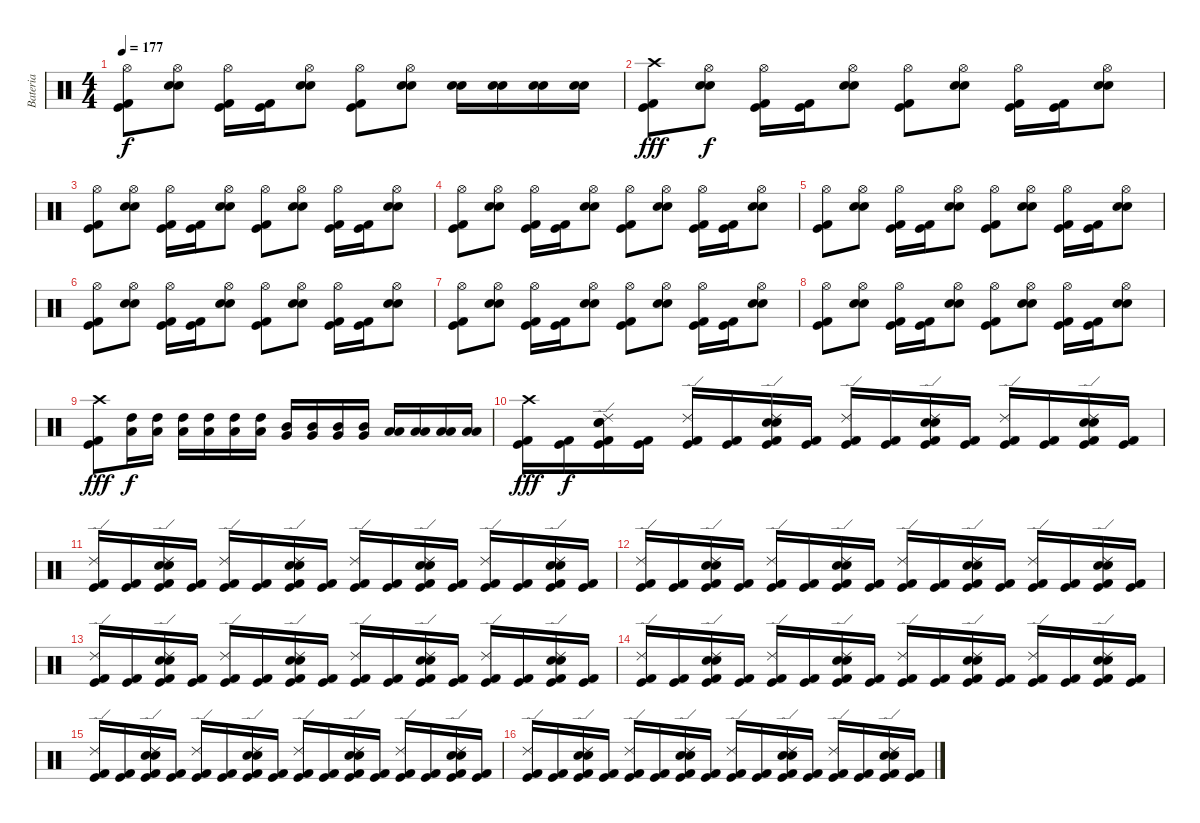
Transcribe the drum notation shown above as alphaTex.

\track ("Bateria" "Bateria") {instrument percussion}
\staff {score}
\articulation defaults
\ts (4 4)
\tempo 177
\clef neutral
\ks c
("Hi-Hat (open)" "Kick (hit) 2" "Kick (hit)").8{dy f} ("Hi-Hat (open)" "Electric Snare (hit)" "Snare (hit) 2").8 ("Hi-Hat (open)" "Kick (hit) 2" "Kick (hit)").16 ("Kick (hit) 2" "Kick (hit)").16 ("Hi-Hat (open)" "Electric Snare (hit)" "Snare (hit) 2").8 ("Hi-Hat (open)" "Kick (hit) 2" "Kick (hit)").8 ("Hi-Hat (open)" "Electric Snare (hit)" "Snare (hit) 2").8 ("Electric Snare (hit)" "Snare (hit) 2").16 ("Electric Snare (hit)" "Snare (hit) 2").16 ("Electric Snare (hit)" "Snare (hit) 2").16 ("Electric Snare (hit)" "Snare (hit) 2").16 |
("Crash high (hit)" "Kick (hit) 2" "Kick (hit)").8{dy fff} ("Hi-Hat (open)" "Electric Snare (hit)" "Snare (hit) 2").8{dy f} ("Hi-Hat (open)" "Kick (hit) 2" "Kick (hit)").16 ("Kick (hit) 2" "Kick (hit)").16 ("Hi-Hat (open)" "Electric Snare (hit)" "Snare (hit) 2").8 ("Hi-Hat (open)" "Kick (hit) 2" "Kick (hit)").8 ("Hi-Hat (open)" "Electric Snare (hit)" "Snare (hit) 2").8 ("Hi-Hat (open)" "Kick (hit) 2" "Kick (hit)").16 ("Kick (hit) 2" "Kick (hit)").16 ("Hi-Hat (open)" "Electric Snare (hit)" "Snare (hit) 2").8 |
("Hi-Hat (open)" "Kick (hit) 2" "Kick (hit)").8 ("Hi-Hat (open)" "Electric Snare (hit)" "Snare (hit) 2").8 ("Hi-Hat (open)" "Kick (hit) 2" "Kick (hit)").16 ("Kick (hit) 2" "Kick (hit)").16 ("Hi-Hat (open)" "Electric Snare (hit)" "Snare (hit) 2").8 ("Hi-Hat (open)" "Kick (hit) 2" "Kick (hit)").8 ("Hi-Hat (open)" "Electric Snare (hit)" "Snare (hit) 2").8 ("Hi-Hat (open)" "Kick (hit) 2" "Kick (hit)").16 ("Kick (hit) 2" "Kick (hit)").16 ("Hi-Hat (open)" "Electric Snare (hit)" "Snare (hit) 2").8 |
("Hi-Hat (open)" "Kick (hit) 2" "Kick (hit)").8 ("Hi-Hat (open)" "Electric Snare (hit)" "Snare (hit) 2").8 ("Hi-Hat (open)" "Kick (hit) 2" "Kick (hit)").16 ("Kick (hit) 2" "Kick (hit)").16 ("Hi-Hat (open)" "Electric Snare (hit)" "Snare (hit) 2").8 ("Hi-Hat (open)" "Kick (hit) 2" "Kick (hit)").8 ("Hi-Hat (open)" "Electric Snare (hit)" "Snare (hit) 2").8 ("Hi-Hat (open)" "Kick (hit) 2" "Kick (hit)").16 ("Kick (hit) 2" "Kick (hit)").16 ("Hi-Hat (open)" "Electric Snare (hit)" "Snare (hit) 2").8 |
("Hi-Hat (open)" "Kick (hit) 2" "Kick (hit)").8 ("Hi-Hat (open)" "Electric Snare (hit)" "Snare (hit) 2").8 ("Hi-Hat (open)" "Kick (hit) 2" "Kick (hit)").16 ("Kick (hit) 2" "Kick (hit)").16 ("Hi-Hat (open)" "Electric Snare (hit)" "Snare (hit) 2").8 ("Hi-Hat (open)" "Kick (hit) 2" "Kick (hit)").8 ("Hi-Hat (open)" "Electric Snare (hit)" "Snare (hit) 2").8 ("Hi-Hat (open)" "Kick (hit) 2" "Kick (hit)").16 ("Kick (hit) 2" "Kick (hit)").16 ("Hi-Hat (open)" "Electric Snare (hit)" "Snare (hit) 2").8 |
("Hi-Hat (open)" "Kick (hit) 2" "Kick (hit)").8 ("Hi-Hat (open)" "Electric Snare (hit)" "Snare (hit) 2").8 ("Hi-Hat (open)" "Kick (hit) 2" "Kick (hit)").16 ("Kick (hit) 2" "Kick (hit)").16 ("Hi-Hat (open)" "Electric Snare (hit)" "Snare (hit) 2").8 ("Hi-Hat (open)" "Kick (hit) 2" "Kick (hit)").8 ("Hi-Hat (open)" "Electric Snare (hit)" "Snare (hit) 2").8 ("Hi-Hat (open)" "Kick (hit) 2" "Kick (hit)").16 ("Kick (hit) 2" "Kick (hit)").16 ("Hi-Hat (open)" "Electric Snare (hit)" "Snare (hit) 2").8 |
("Hi-Hat (open)" "Kick (hit) 2" "Kick (hit)").8 ("Hi-Hat (open)" "Electric Snare (hit)" "Snare (hit) 2").8 ("Hi-Hat (open)" "Kick (hit) 2" "Kick (hit)").16 ("Kick (hit) 2" "Kick (hit)").16 ("Hi-Hat (open)" "Electric Snare (hit)" "Snare (hit) 2").8 ("Hi-Hat (open)" "Kick (hit) 2" "Kick (hit)").8 ("Hi-Hat (open)" "Electric Snare (hit)" "Snare (hit) 2").8 ("Hi-Hat (open)" "Kick (hit) 2" "Kick (hit)").16 ("Kick (hit) 2" "Kick (hit)").16 ("Hi-Hat (open)" "Electric Snare (hit)" "Snare (hit) 2").8 |
("Hi-Hat (open)" "Kick (hit) 2" "Kick (hit)").8 ("Hi-Hat (open)" "Electric Snare (hit)" "Snare (hit) 2").8 ("Hi-Hat (open)" "Kick (hit) 2" "Kick (hit)").16 ("Kick (hit) 2" "Kick (hit)").16 ("Hi-Hat (open)" "Electric Snare (hit)" "Snare (hit) 2").8 ("Hi-Hat (open)" "Kick (hit) 2" "Kick (hit)").8 ("Hi-Hat (open)" "Electric Snare (hit)" "Snare (hit) 2").8 ("Hi-Hat (open)" "Kick (hit) 2" "Kick (hit)").16 ("Kick (hit) 2" "Kick (hit)").16 ("Hi-Hat (open)" "Electric Snare (hit)" "Snare (hit) 2").8 |
("Crash high (hit)" "Kick (hit) 2" "Kick (hit)").8{dy fff} ("High Tom (hit)" "Low Tom (hit)").16{dy f} ("High Tom (hit)" "Low Tom (hit)").16 ("High Tom (hit)" "Low Tom (hit)").16 ("High Tom (hit)" "Low Tom (hit)").16 ("High Tom (hit)" "Low Tom (hit)").16 ("High Tom (hit)" "Low Tom (hit)").16 ("Mid Tom (hit)" "Very Low Tom (hit)").16 ("Mid Tom (hit)" "Very Low Tom (hit)").16 ("Mid Tom (hit)" "Very Low Tom (hit)").16 ("Mid Tom (hit)" "Very Low Tom (hit)").16 ("Low Tom (hit)" "Low Floor Tom (hit)").16 ("Low Tom (hit)" "Low Floor Tom (hit)").16 ("Low Tom (hit)" "Low Floor Tom (hit)").16 ("Low Tom (hit)" "Low Floor Tom (hit)").16 |
("Crash high (hit)" "Kick (hit) 2" "Kick (hit)").16{dy fff} ("Kick (hit) 2" "Kick (hit)").16{dy f} ("Ride (edge) 2" "Electric Snare (hit)" "Snare (hit) 2" "Kick (hit) 2" "Kick (hit)").16 ("Kick (hit) 2" "Kick (hit)").16 ("Ride (edge) 2" "Kick (hit) 2" "Kick (hit)").16 ("Kick (hit) 2" "Kick (hit)").16 ("Ride (edge) 2" "Electric Snare (hit)" "Snare (hit) 2" "Kick (hit) 2" "Kick (hit)").16 ("Kick (hit) 2" "Kick (hit)").16 ("Ride (edge) 2" "Kick (hit) 2" "Kick (hit)").16 ("Kick (hit) 2" "Kick (hit)").16 ("Ride (edge) 2" "Electric Snare (hit)" "Snare (hit) 2" "Kick (hit) 2" "Kick (hit)").16 ("Kick (hit) 2" "Kick (hit)").16 ("Ride (edge) 2" "Kick (hit) 2" "Kick (hit)").16 ("Kick (hit) 2" "Kick (hit)").16 ("Ride (edge) 2" "Electric Snare (hit)" "Snare (hit) 2" "Kick (hit) 2" "Kick (hit)").16 ("Kick (hit) 2" "Kick (hit)").16 |
("Ride (edge) 2" "Kick (hit) 2" "Kick (hit)").16 ("Kick (hit) 2" "Kick (hit)").16 ("Ride (edge) 2" "Electric Snare (hit)" "Snare (hit) 2" "Kick (hit) 2" "Kick (hit)").16 ("Kick (hit) 2" "Kick (hit)").16 ("Ride (edge) 2" "Kick (hit) 2" "Kick (hit)").16 ("Kick (hit) 2" "Kick (hit)").16 ("Ride (edge) 2" "Electric Snare (hit)" "Snare (hit) 2" "Kick (hit) 2" "Kick (hit)").16 ("Kick (hit) 2" "Kick (hit)").16 ("Ride (edge) 2" "Kick (hit) 2" "Kick (hit)").16 ("Kick (hit) 2" "Kick (hit)").16 ("Ride (edge) 2" "Electric Snare (hit)" "Snare (hit) 2" "Kick (hit) 2" "Kick (hit)").16 ("Kick (hit) 2" "Kick (hit)").16 ("Ride (edge) 2" "Kick (hit) 2" "Kick (hit)").16 ("Kick (hit) 2" "Kick (hit)").16 ("Ride (edge) 2" "Electric Snare (hit)" "Snare (hit) 2" "Kick (hit) 2" "Kick (hit)").16 ("Kick (hit) 2" "Kick (hit)").16 |
("Ride (edge) 2" "Kick (hit) 2" "Kick (hit)").16 ("Kick (hit) 2" "Kick (hit)").16 ("Ride (edge) 2" "Electric Snare (hit)" "Snare (hit) 2" "Kick (hit) 2" "Kick (hit)").16 ("Kick (hit) 2" "Kick (hit)").16 ("Ride (edge) 2" "Kick (hit) 2" "Kick (hit)").16 ("Kick (hit) 2" "Kick (hit)").16 ("Ride (edge) 2" "Electric Snare (hit)" "Snare (hit) 2" "Kick (hit) 2" "Kick (hit)").16 ("Kick (hit) 2" "Kick (hit)").16 ("Ride (edge) 2" "Kick (hit) 2" "Kick (hit)").16 ("Kick (hit) 2" "Kick (hit)").16 ("Ride (edge) 2" "Electric Snare (hit)" "Snare (hit) 2" "Kick (hit) 2" "Kick (hit)").16 ("Kick (hit) 2" "Kick (hit)").16 ("Ride (edge) 2" "Kick (hit) 2" "Kick (hit)").16 ("Kick (hit) 2" "Kick (hit)").16 ("Ride (edge) 2" "Electric Snare (hit)" "Snare (hit) 2" "Kick (hit) 2" "Kick (hit)").16 ("Kick (hit) 2" "Kick (hit)").16 |
("Ride (edge) 2" "Kick (hit) 2" "Kick (hit)").16 ("Kick (hit) 2" "Kick (hit)").16 ("Ride (edge) 2" "Electric Snare (hit)" "Snare (hit) 2" "Kick (hit) 2" "Kick (hit)").16 ("Kick (hit) 2" "Kick (hit)").16 ("Ride (edge) 2" "Kick (hit) 2" "Kick (hit)").16 ("Kick (hit) 2" "Kick (hit)").16 ("Ride (edge) 2" "Electric Snare (hit)" "Snare (hit) 2" "Kick (hit) 2" "Kick (hit)").16 ("Kick (hit) 2" "Kick (hit)").16 ("Ride (edge) 2" "Kick (hit) 2" "Kick (hit)").16 ("Kick (hit) 2" "Kick (hit)").16 ("Ride (edge) 2" "Electric Snare (hit)" "Snare (hit) 2" "Kick (hit) 2" "Kick (hit)").16 ("Kick (hit) 2" "Kick (hit)").16 ("Ride (edge) 2" "Kick (hit) 2" "Kick (hit)").16 ("Kick (hit) 2" "Kick (hit)").16 ("Ride (edge) 2" "Electric Snare (hit)" "Snare (hit) 2" "Kick (hit) 2" "Kick (hit)").16 ("Kick (hit) 2" "Kick (hit)").16 |
("Ride (edge) 2" "Kick (hit) 2" "Kick (hit)").16 ("Kick (hit) 2" "Kick (hit)").16 ("Ride (edge) 2" "Electric Snare (hit)" "Snare (hit) 2" "Kick (hit) 2" "Kick (hit)").16 ("Kick (hit) 2" "Kick (hit)").16 ("Ride (edge) 2" "Kick (hit) 2" "Kick (hit)").16 ("Kick (hit) 2" "Kick (hit)").16 ("Ride (edge) 2" "Electric Snare (hit)" "Snare (hit) 2" "Kick (hit) 2" "Kick (hit)").16 ("Kick (hit) 2" "Kick (hit)").16 ("Ride (edge) 2" "Kick (hit) 2" "Kick (hit)").16 ("Kick (hit) 2" "Kick (hit)").16 ("Ride (edge) 2" "Electric Snare (hit)" "Snare (hit) 2" "Kick (hit) 2" "Kick (hit)").16 ("Kick (hit) 2" "Kick (hit)").16 ("Ride (edge) 2" "Kick (hit) 2" "Kick (hit)").16 ("Kick (hit) 2" "Kick (hit)").16 ("Ride (edge) 2" "Electric Snare (hit)" "Snare (hit) 2" "Kick (hit) 2" "Kick (hit)").16 ("Kick (hit) 2" "Kick (hit)").16 |
("Ride (edge) 2" "Kick (hit) 2" "Kick (hit)").16 ("Kick (hit) 2" "Kick (hit)").16 ("Ride (edge) 2" "Electric Snare (hit)" "Snare (hit) 2" "Kick (hit) 2" "Kick (hit)").16 ("Kick (hit) 2" "Kick (hit)").16 ("Ride (edge) 2" "Kick (hit) 2" "Kick (hit)").16 ("Kick (hit) 2" "Kick (hit)").16 ("Ride (edge) 2" "Electric Snare (hit)" "Snare (hit) 2" "Kick (hit) 2" "Kick (hit)").16 ("Kick (hit) 2" "Kick (hit)").16 ("Ride (edge) 2" "Kick (hit) 2" "Kick (hit)").16 ("Kick (hit) 2" "Kick (hit)").16 ("Ride (edge) 2" "Electric Snare (hit)" "Snare (hit) 2" "Kick (hit) 2" "Kick (hit)").16 ("Kick (hit) 2" "Kick (hit)").16 ("Ride (edge) 2" "Kick (hit) 2" "Kick (hit)").16 ("Kick (hit) 2" "Kick (hit)").16 ("Ride (edge) 2" "Electric Snare (hit)" "Snare (hit) 2" "Kick (hit) 2" "Kick (hit)").16 ("Kick (hit) 2" "Kick (hit)").16 |
("Ride (edge) 2" "Kick (hit) 2" "Kick (hit)").16 ("Kick (hit) 2" "Kick (hit)").16 ("Ride (edge) 2" "Electric Snare (hit)" "Snare (hit) 2" "Kick (hit) 2" "Kick (hit)").16 ("Kick (hit) 2" "Kick (hit)").16 ("Ride (edge) 2" "Kick (hit) 2" "Kick (hit)").16 ("Kick (hit) 2" "Kick (hit)").16 ("Ride (edge) 2" "Electric Snare (hit)" "Snare (hit) 2" "Kick (hit) 2" "Kick (hit)").16 ("Kick (hit) 2" "Kick (hit)").16 ("Ride (edge) 2" "Kick (hit) 2" "Kick (hit)").16 ("Kick (hit) 2" "Kick (hit)").16 ("Ride (edge) 2" "Electric Snare (hit)" "Snare (hit) 2" "Kick (hit) 2" "Kick (hit)").16 ("Kick (hit) 2" "Kick (hit)").16 ("Ride (edge) 2" "Kick (hit) 2" "Kick (hit)").16 ("Kick (hit) 2" "Kick (hit)").16 ("Ride (edge) 2" "Electric Snare (hit)" "Snare (hit) 2" "Kick (hit) 2" "Kick (hit)").16 ("Kick (hit) 2" "Kick (hit)").16
